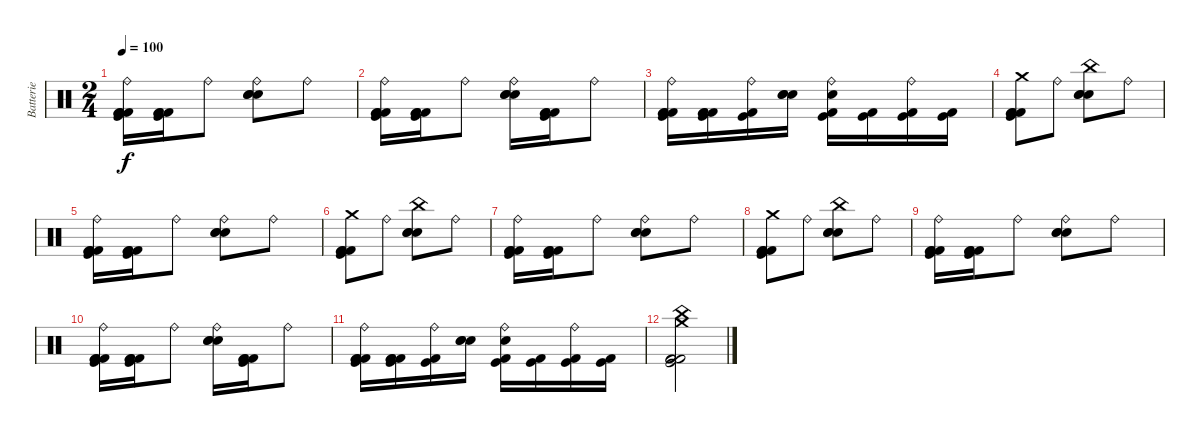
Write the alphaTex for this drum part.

\track ("Batterie" "Batterie") {instrument percussion}
\staff {score}
\articulation defaults
\ts (2 4)
\tempo 100
\clef neutral
\ks c
("Ride (bell)" "Kick (hit) 2" "Kick (hit) 2" "Kick (hit) 2" "Kick (hit)").16{dy f} ("Kick (hit) 2" "Kick (hit) 2" "Kick (hit) 2" "Kick (hit)").16 "Ride (bell)".8 ("Ride (bell)" "Snare (hit) 2" "Electric Snare (hit)" "Electric Snare (hit)").8 "Ride (bell)".8 |
("Ride (bell)" "Kick (hit) 2" "Kick (hit) 2" "Kick (hit) 2" "Kick (hit)").16 ("Kick (hit) 2" "Kick (hit) 2" "Kick (hit) 2" "Kick (hit)").16 "Ride (bell)".8 ("Ride (bell)" "Snare (hit) 2" "Electric Snare (hit)" "Electric Snare (hit)").16 ("Kick (hit) 2" "Kick (hit) 2" "Kick (hit) 2" "Kick (hit)").16 "Ride (bell)".8 |
("Ride (bell)" "Kick (hit) 2" "Kick (hit) 2" "Kick (hit) 2" "Kick (hit)").16 ("Kick (hit) 2" "Kick (hit) 2" "Kick (hit) 2" "Kick (hit)").16 ("Ride (bell)" "Kick (hit) 2" "Kick (hit)").16 ("Snare (hit) 2" "Electric Snare (hit)" "Electric Snare (hit)").16 ("Ride (bell)" "Electric Snare (hit)" "Kick (hit)" "Kick (hit) 2").16 ("Kick (hit) 2" "Kick (hit)").16 ("Ride (bell)" "Kick (hit) 2" "Kick (hit)").16 ("Kick (hit) 2" "Kick (hit)").16 |
("Crash medium (hit)" "Kick (hit) 2" "Kick (hit) 2" "Kick (hit) 2" "Kick (hit)").8 "Ride (bell)".8 ("China (hit)" "Snare (hit) 2" "Electric Snare (hit)" "Electric Snare (hit)").8 "Ride (bell)".8 |
("Ride (bell)" "Kick (hit) 2" "Kick (hit) 2" "Kick (hit) 2" "Kick (hit)").16 ("Kick (hit) 2" "Kick (hit) 2" "Kick (hit) 2" "Kick (hit)").16 "Ride (bell)".8 ("Ride (bell)" "Snare (hit) 2" "Electric Snare (hit)" "Electric Snare (hit)").8 "Ride (bell)".8 |
("Crash medium (hit)" "Kick (hit) 2" "Kick (hit) 2" "Kick (hit) 2" "Kick (hit)").8 "Ride (bell)".8 ("China (hit)" "Snare (hit) 2" "Electric Snare (hit)" "Electric Snare (hit)").8 "Ride (bell)".8 |
("Ride (bell)" "Kick (hit) 2" "Kick (hit) 2" "Kick (hit) 2" "Kick (hit)").16 ("Kick (hit) 2" "Kick (hit) 2" "Kick (hit) 2" "Kick (hit)").16 "Ride (bell)".8 ("Ride (bell)" "Snare (hit) 2" "Electric Snare (hit)" "Electric Snare (hit)").8 "Ride (bell)".8 |
("Crash medium (hit)" "Kick (hit) 2" "Kick (hit) 2" "Kick (hit) 2" "Kick (hit)").8 "Ride (bell)".8 ("China (hit)" "Snare (hit) 2" "Electric Snare (hit)" "Electric Snare (hit)").8 "Ride (bell)".8 |
("Ride (bell)" "Kick (hit) 2" "Kick (hit) 2" "Kick (hit) 2" "Kick (hit)").16 ("Kick (hit) 2" "Kick (hit) 2" "Kick (hit) 2" "Kick (hit)").16 "Ride (bell)".8 ("Ride (bell)" "Snare (hit) 2" "Electric Snare (hit)" "Electric Snare (hit)").8 "Ride (bell)".8 |
("Ride (bell)" "Kick (hit) 2" "Kick (hit) 2" "Kick (hit) 2" "Kick (hit)").16 ("Kick (hit) 2" "Kick (hit) 2" "Kick (hit) 2" "Kick (hit)").16 "Ride (bell)".8 ("Ride (bell)" "Snare (hit) 2" "Electric Snare (hit)" "Electric Snare (hit)").16 ("Kick (hit) 2" "Kick (hit) 2" "Kick (hit) 2" "Kick (hit)").16 "Ride (bell)".8 |
("Ride (bell)" "Kick (hit) 2" "Kick (hit) 2" "Kick (hit) 2" "Kick (hit)").16 ("Kick (hit) 2" "Kick (hit) 2" "Kick (hit) 2" "Kick (hit)").16 ("Ride (bell)" "Kick (hit) 2" "Kick (hit)").16 ("Snare (hit) 2" "Electric Snare (hit)" "Electric Snare (hit)").16 ("Ride (bell)" "Electric Snare (hit)" "Kick (hit)" "Kick (hit) 2").16 ("Kick (hit) 2" "Kick (hit)").16 ("Ride (bell)" "Kick (hit) 2" "Kick (hit)").16 ("Kick (hit) 2" "Kick (hit)").16 |
("Kick (hit) 2" "China (hit)" "Crash medium (hit)" "Kick (hit) 2" "Kick (hit) 2" "Kick (hit)").2
